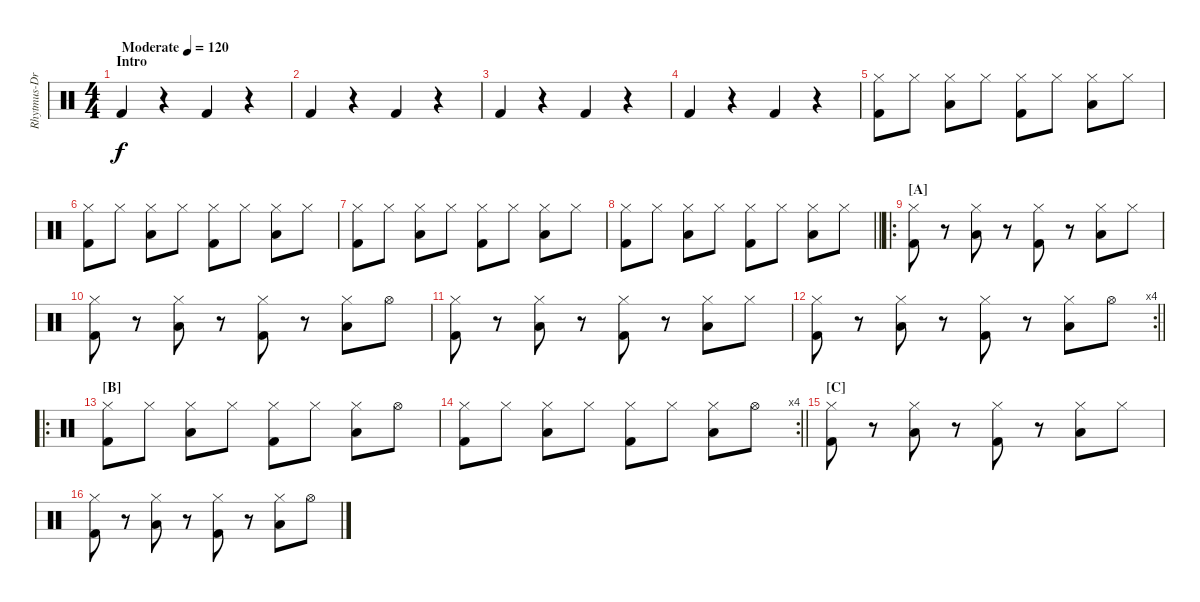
\track ("Rhytmus-Drum" "Rhytmus-Dr") {instrument percussion}
\staff {score}
\articulation defaults
\ts (4 4)
\section ("" "Intro")
\tempo (120 "Moderate")
\clef neutral
\ks c "Kick (hit) 2".4{dy f}
r.4 "Kick (hit) 2".4 r.4 |
"Kick (hit) 2".4 r.4 "Kick (hit) 2".4 r.4 |
"Kick (hit) 2".4 r.4 "Kick (hit) 2".4 r.4 |
"Kick (hit) 2".4 r.4 "Kick (hit) 2".4 r.4 |
("Hi-Hat (closed)" "Kick (hit) 2").8 "Hi-Hat (closed)".8 ("Low Tom (hit)" "Hi-Hat (closed)").8 "Hi-Hat (closed)".8 ("Hi-Hat (closed)" "Kick (hit) 2").8 "Hi-Hat (closed)".8 ("Low Tom (hit)" "Hi-Hat (closed)").8 "Hi-Hat (closed)".8 |
("Hi-Hat (closed)" "Kick (hit) 2").8 "Hi-Hat (closed)".8 ("Low Tom (hit)" "Hi-Hat (closed)").8 "Hi-Hat (closed)".8 ("Hi-Hat (closed)" "Kick (hit) 2").8 "Hi-Hat (closed)".8 ("Low Tom (hit)" "Hi-Hat (closed)").8 "Hi-Hat (closed)".8 |
("Hi-Hat (closed)" "Kick (hit) 2").8 "Hi-Hat (closed)".8 ("Low Tom (hit)" "Hi-Hat (closed)").8 "Hi-Hat (closed)".8 ("Hi-Hat (closed)" "Kick (hit) 2").8 "Hi-Hat (closed)".8 ("Low Tom (hit)" "Hi-Hat (closed)").8 "Hi-Hat (closed)".8 |
\barLineRight lightlight
("Hi-Hat (closed)" "Kick (hit) 2").8 "Hi-Hat (closed)".8 ("Low Tom (hit)" "Hi-Hat (closed)").8 "Hi-Hat (closed)".8 ("Hi-Hat (closed)" "Kick (hit) 2").8 "Hi-Hat (closed)".8 ("Low Tom (hit)" "Hi-Hat (closed)").8 "Hi-Hat (closed)".8 |
\ro
\section ("" "[A]")
("Hi-Hat (closed)" "Kick (hit) 2").8 r.8 ("Low Tom (hit)" "Hi-Hat (closed)").8 r.8 ("Hi-Hat (closed)" "Kick (hit) 2").8 r.8 ("Low Tom (hit)" "Hi-Hat (closed)").8 "Hi-Hat (closed)".8 |
("Hi-Hat (closed)" "Kick (hit) 2").8 r.8 ("Low Tom (hit)" "Hi-Hat (closed)").8 r.8 ("Hi-Hat (closed)" "Kick (hit) 2").8 r.8 ("Low Tom (hit)" "Hi-Hat (closed)").8 "Hi-Hat (open)".8 |
("Hi-Hat (closed)" "Kick (hit) 2").8 r.8 ("Low Tom (hit)" "Hi-Hat (closed)").8 r.8 ("Hi-Hat (closed)" "Kick (hit) 2").8 r.8 ("Low Tom (hit)" "Hi-Hat (closed)").8 "Hi-Hat (closed)".8 |
\rc 4
\barLineRight lightlight
("Hi-Hat (closed)" "Kick (hit) 2").8 r.8 ("Low Tom (hit)" "Hi-Hat (closed)").8 r.8 ("Hi-Hat (closed)" "Kick (hit) 2").8 r.8 ("Low Tom (hit)" "Hi-Hat (closed)").8 "Hi-Hat (open)".8 |
\ro
\section ("" "[B]")
("Hi-Hat (closed)" "Kick (hit) 2").8 "Hi-Hat (closed)".8 ("Low Tom (hit)" "Hi-Hat (closed)").8 "Hi-Hat (closed)".8 ("Hi-Hat (closed)" "Kick (hit) 2").8 "Hi-Hat (closed)".8 ("Low Tom (hit)" "Hi-Hat (closed)").8 "Hi-Hat (open)".8 |
\rc 4
\barLineRight lightlight
("Hi-Hat (closed)" "Kick (hit) 2").8 "Hi-Hat (closed)".8 ("Low Tom (hit)" "Hi-Hat (closed)").8 "Hi-Hat (closed)".8 ("Hi-Hat (closed)" "Kick (hit) 2").8 "Hi-Hat (closed)".8 ("Low Tom (hit)" "Hi-Hat (closed)").8 "Hi-Hat (open)".8 |
\section ("" "[C]")
("Hi-Hat (closed)" "Kick (hit) 2").8 r.8 ("Low Tom (hit)" "Hi-Hat (closed)").8 r.8 ("Hi-Hat (closed)" "Kick (hit) 2").8 r.8 ("Low Tom (hit)" "Hi-Hat (closed)").8 "Hi-Hat (closed)".8 |
("Hi-Hat (closed)" "Kick (hit) 2").8 r.8 ("Low Tom (hit)" "Hi-Hat (closed)").8 r.8 ("Hi-Hat (closed)" "Kick (hit) 2").8 r.8 ("Low Tom (hit)" "Hi-Hat (closed)").8 "Hi-Hat (open)".8
